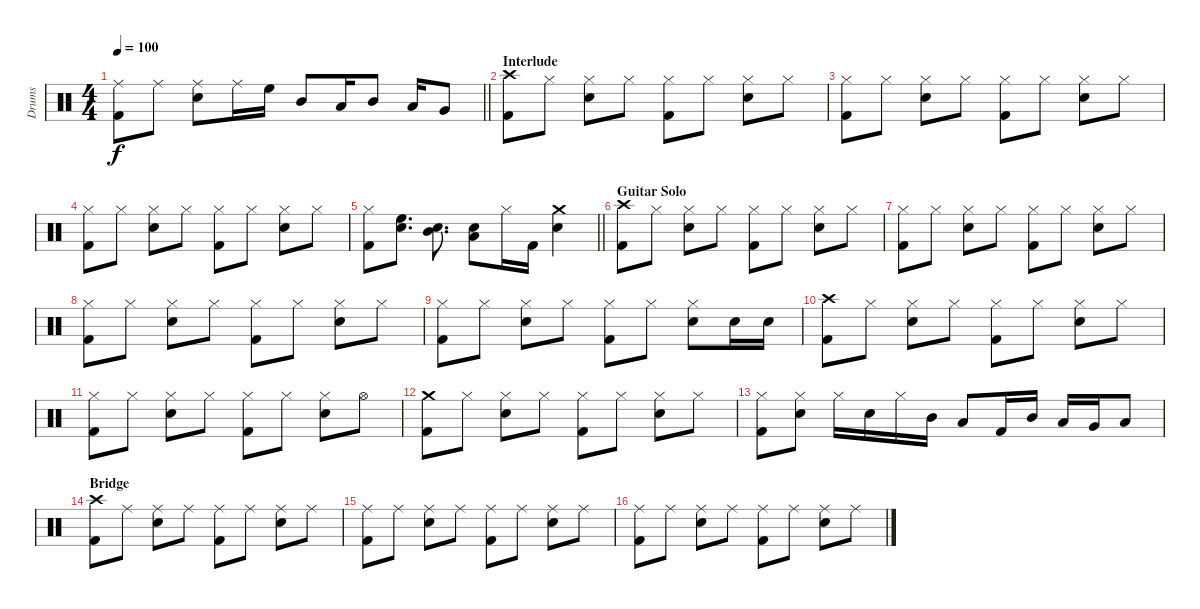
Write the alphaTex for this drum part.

\track ("Drums" "Drums") {instrument percussion}
\staff {score}
\articulation defaults
\ts (4 4)
\tempo 100
\clef neutral
\barLineRight lightlight
\ks c
("Ride (middle)" "Kick (hit) 2").8{dy f} "Ride (middle)".8 ("Ride (middle)" "Snare (hit) 2").8 "Ride (middle)".16 "High Floor Tom (hit)".16 "Mid Tom (hit)".8 "Low Tom (hit)".16 "Mid Tom (hit)".8 "Low Tom (hit)".16 "Very Low Tom (hit)".8 |
\section ("" "Interlude")
("Crash high (hit)" "Kick (hit) 2").8 "Hi-Hat (closed)".8 ("Hi-Hat (closed)" "Snare (hit) 2").8 "Hi-Hat (closed)".8 ("Hi-Hat (closed)" "Kick (hit) 2").8 "Hi-Hat (closed)".8 ("Hi-Hat (closed)" "Snare (hit) 2").8 "Hi-Hat (closed)".8 |
("Hi-Hat (closed)" "Kick (hit) 2").8 "Hi-Hat (closed)".8 ("Hi-Hat (closed)" "Snare (hit) 2").8 "Hi-Hat (closed)".8 ("Hi-Hat (closed)" "Kick (hit) 2").8 "Hi-Hat (closed)".8 ("Hi-Hat (closed)" "Snare (hit) 2").8 "Hi-Hat (closed)".8 |
("Hi-Hat (closed)" "Kick (hit) 2").8 "Hi-Hat (closed)".8 ("Hi-Hat (closed)" "Snare (hit) 2").8 "Hi-Hat (closed)".8 ("Hi-Hat (closed)" "Kick (hit) 2").8 "Hi-Hat (closed)".8 ("Hi-Hat (closed)" "Snare (hit) 2").8 "Hi-Hat (closed)".8 |
\barLineRight lightlight
("Hi-Hat (closed)" "Kick (hit) 2").8 ("Snare (hit) 2" "High Floor Tom (hit)").8{d} ("Snare (hit) 2" "Mid Tom (hit)").8{d} ("Snare (hit) 2" "Low Tom (hit)").8 "Hi-Hat (closed)".16 "Kick (hit) 2".16 ("Crash medium (hit)" "Snare (hit) 2").4 |
\section ("" "Guitar Solo")
("Crash high (hit)" "Kick (hit) 2").8 "Hi-Hat (closed)".8 ("Hi-Hat (closed)" "Snare (hit) 2").8 "Hi-Hat (closed)".8 ("Hi-Hat (closed)" "Kick (hit) 2").8 "Hi-Hat (closed)".8 ("Hi-Hat (closed)" "Snare (hit) 2").8 "Hi-Hat (closed)".8 |
("Hi-Hat (closed)" "Kick (hit) 2").8 "Hi-Hat (closed)".8 ("Hi-Hat (closed)" "Snare (hit) 2").8 "Hi-Hat (closed)".8 ("Hi-Hat (closed)" "Kick (hit) 2").8 "Hi-Hat (closed)".8 ("Hi-Hat (closed)" "Snare (hit) 2").8 "Hi-Hat (closed)".8 |
("Hi-Hat (closed)" "Kick (hit) 2").8 "Hi-Hat (closed)".8 ("Hi-Hat (closed)" "Snare (hit) 2").8 "Hi-Hat (closed)".8 ("Hi-Hat (closed)" "Kick (hit) 2").8 "Hi-Hat (closed)".8 ("Hi-Hat (closed)" "Snare (hit) 2").8 "Hi-Hat (closed)".8 |
("Hi-Hat (closed)" "Kick (hit) 2").8 "Hi-Hat (closed)".8 ("Hi-Hat (closed)" "Snare (hit) 2").8 "Hi-Hat (closed)".8 ("Hi-Hat (closed)" "Kick (hit) 2").8 "Hi-Hat (closed)".8 ("Hi-Hat (closed)" "Snare (hit) 2").8 "Snare (hit) 2".16 "Snare (hit) 2".16 |
("Crash high (hit)" "Kick (hit) 2").8 "Hi-Hat (closed)".8 ("Hi-Hat (closed)" "Snare (hit) 2").8 "Hi-Hat (closed)".8 ("Hi-Hat (closed)" "Kick (hit) 2").8 "Hi-Hat (closed)".8 ("Hi-Hat (closed)" "Snare (hit) 2").8 "Hi-Hat (closed)".8 |
("Hi-Hat (closed)" "Kick (hit) 2").8 "Hi-Hat (closed)".8 ("Hi-Hat (closed)" "Snare (hit) 2").8 "Hi-Hat (closed)".8 ("Hi-Hat (closed)" "Kick (hit) 2").8 "Hi-Hat (closed)".8 ("Hi-Hat (closed)" "Snare (hit) 2").8 "Hi-Hat (open)".8 |
("Crash medium (hit)" "Kick (hit) 2").8 "Hi-Hat (closed)".8 ("Hi-Hat (closed)" "Snare (hit) 2").8 "Hi-Hat (closed)".8 ("Hi-Hat (closed)" "Kick (hit) 2").8 "Hi-Hat (closed)".8 ("Hi-Hat (closed)" "Snare (hit) 2").8 "Hi-Hat (closed)".8 |
("Hi-Hat (closed)" "Kick (hit) 2").8 ("Hi-Hat (closed)" "Snare (hit) 2").8 "Hi-Hat (closed)".16 "Snare (hit) 2".16 "Hi-Hat (closed)".16 "Mid Tom (hit)".16 "Low Tom (hit)".8 "Kick (hit) 2".16 "Mid Tom (hit)".16 "Low Tom (hit)".16 "Very Low Tom (hit)".16 "Low Floor Tom (hit)".8 |
\section ("" "Bridge")
("Crash high (hit)" "Kick (hit) 2").8 "Ride (middle)".8 ("Ride (middle)" "Snare (hit) 2").8 "Ride (middle)".8 ("Ride (middle)" "Kick (hit) 2").8 "Ride (middle)".8 ("Ride (middle)" "Snare (hit) 2").8 "Ride (middle)".8 |
("Ride (middle)" "Kick (hit) 2").8 "Ride (middle)".8 ("Ride (middle)" "Snare (hit) 2").8 "Ride (middle)".8 ("Ride (middle)" "Kick (hit) 2").8 "Ride (middle)".8 ("Ride (middle)" "Snare (hit) 2").8 "Ride (middle)".8 |
("Ride (middle)" "Kick (hit) 2").8 "Ride (middle)".8 ("Ride (middle)" "Snare (hit) 2").8 "Ride (middle)".8 ("Ride (middle)" "Kick (hit) 2").8 "Ride (middle)".8 ("Ride (middle)" "Snare (hit) 2").8 "Ride (middle)".8
